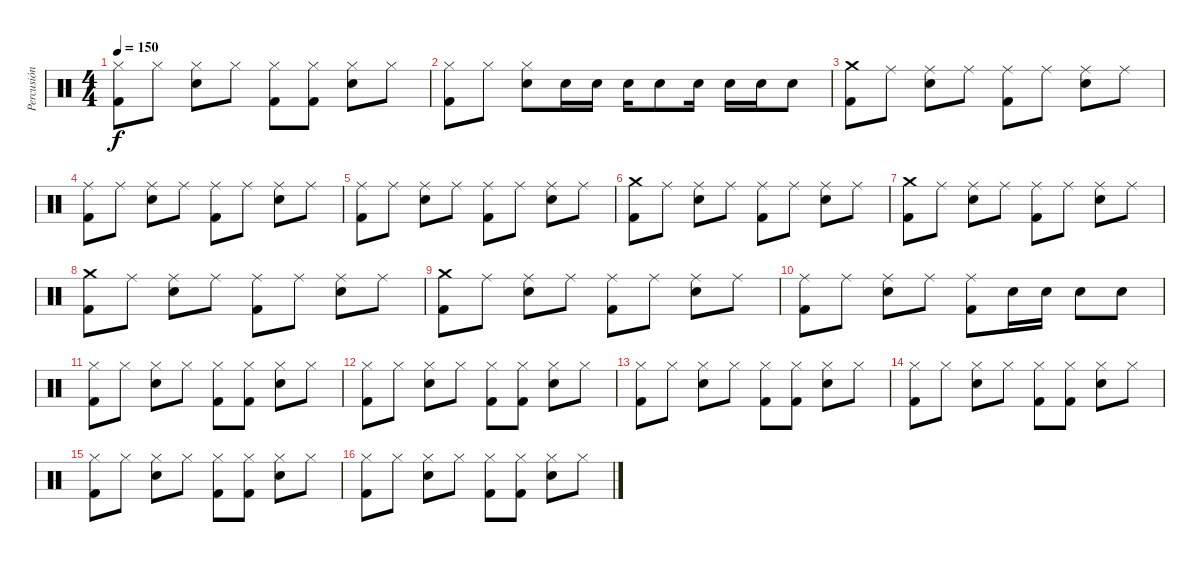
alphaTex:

\track ("Percusión" "Percusión") {instrument percussion}
\staff {score}
\articulation defaults
\ts (4 4)
\tempo 150
\clef neutral
\ks c
("Hi-Hat (closed)" "Kick (hit) 2").8{dy f} "Hi-Hat (closed)".8 ("Hi-Hat (closed)" "Snare (hit) 2").8 "Hi-Hat (closed)".8 ("Hi-Hat (closed)" "Kick (hit) 2").8 ("Hi-Hat (closed)" "Kick (hit) 2").8 ("Hi-Hat (closed)" "Snare (hit) 2").8 "Hi-Hat (closed)".8 |
("Hi-Hat (closed)" "Kick (hit) 2").8 "Hi-Hat (closed)".8 ("Hi-Hat (closed)" "Snare (hit) 2").8 "Snare (hit) 2".16 "Snare (hit) 2".16 "Snare (hit) 2".16 "Snare (hit) 2".8 "Snare (hit) 2".16 "Snare (hit) 2".16 "Snare (hit) 2".16 "Snare (hit) 2".8 |
("Crash medium (hit)" "Kick (hit) 2").8 "Ride (middle)".8 ("Ride (middle)" "Snare (hit) 2").8 "Ride (middle)".8 ("Ride (middle)" "Kick (hit) 2").8 "Ride (middle)".8 ("Ride (middle)" "Snare (hit) 2").8 "Ride (middle)".8 |
("Ride (middle)" "Kick (hit) 2").8 "Ride (middle)".8 ("Ride (middle)" "Snare (hit) 2").8 "Ride (middle)".8 ("Ride (middle)" "Kick (hit) 2").8 "Ride (middle)".8 ("Ride (middle)" "Snare (hit) 2").8 "Ride (middle)".8 |
("Ride (middle)" "Kick (hit) 2").8 "Ride (middle)".8 ("Ride (middle)" "Snare (hit) 2").8 "Ride (middle)".8 ("Ride (middle)" "Kick (hit) 2").8 "Ride (middle)".8 ("Ride (middle)" "Snare (hit) 2").8 "Ride (middle)".8 |
("Crash medium (hit)" "Kick (hit) 2").8 "Ride (middle)".8 ("Ride (middle)" "Snare (hit) 2").8 "Ride (middle)".8 ("Ride (middle)" "Kick (hit) 2").8 "Ride (middle)".8 ("Ride (middle)" "Snare (hit) 2").8 "Ride (middle)".8 |
("Crash medium (hit)" "Kick (hit) 2").8 "Ride (middle)".8 ("Ride (middle)" "Snare (hit) 2").8 "Ride (middle)".8 ("Ride (middle)" "Kick (hit) 2").8 "Ride (middle)".8 ("Ride (middle)" "Snare (hit) 2").8 "Ride (middle)".8 |
("Crash medium (hit)" "Kick (hit) 2").8 "Ride (middle)".8 ("Ride (middle)" "Snare (hit) 2").8 "Ride (middle)".8 ("Ride (middle)" "Kick (hit) 2").8 "Ride (middle)".8 ("Ride (middle)" "Snare (hit) 2").8 "Ride (middle)".8 |
("Crash medium (hit)" "Kick (hit) 2").8 "Ride (middle)".8 ("Ride (middle)" "Snare (hit) 2").8 "Ride (middle)".8 ("Ride (middle)" "Kick (hit) 2").8 "Ride (middle)".8 ("Ride (middle)" "Snare (hit) 2").8 "Ride (middle)".8 |
("Ride (middle)" "Kick (hit) 2").8 "Ride (middle)".8 ("Ride (middle)" "Snare (hit) 2").8 "Ride (middle)".8 ("Ride (middle)" "Kick (hit) 2").8 "Snare (hit) 2".16 "Snare (hit) 2".16 "Snare (hit) 2".8 "Snare (hit) 2".8 |
("Hi-Hat (closed)" "Kick (hit) 2").8 "Hi-Hat (closed)".8 ("Hi-Hat (closed)" "Snare (hit) 2").8 "Hi-Hat (closed)".8 ("Hi-Hat (closed)" "Kick (hit) 2").8 ("Hi-Hat (closed)" "Kick (hit) 2").8 ("Hi-Hat (closed)" "Snare (hit) 2").8 "Hi-Hat (closed)".8 |
("Hi-Hat (closed)" "Kick (hit) 2").8 "Hi-Hat (closed)".8 ("Hi-Hat (closed)" "Snare (hit) 2").8 "Hi-Hat (closed)".8 ("Hi-Hat (closed)" "Kick (hit) 2").8 ("Hi-Hat (closed)" "Kick (hit) 2").8 ("Hi-Hat (closed)" "Snare (hit) 2").8 "Hi-Hat (closed)".8 |
("Hi-Hat (closed)" "Kick (hit) 2").8 "Hi-Hat (closed)".8 ("Hi-Hat (closed)" "Snare (hit) 2").8 "Hi-Hat (closed)".8 ("Hi-Hat (closed)" "Kick (hit) 2").8 ("Hi-Hat (closed)" "Kick (hit) 2").8 ("Hi-Hat (closed)" "Snare (hit) 2").8 "Hi-Hat (closed)".8 |
("Hi-Hat (closed)" "Kick (hit) 2").8 "Hi-Hat (closed)".8 ("Hi-Hat (closed)" "Snare (hit) 2").8 "Hi-Hat (closed)".8 ("Hi-Hat (closed)" "Kick (hit) 2").8 ("Hi-Hat (closed)" "Kick (hit) 2").8 ("Hi-Hat (closed)" "Snare (hit) 2").8 "Hi-Hat (closed)".8 |
("Hi-Hat (closed)" "Kick (hit) 2").8 "Hi-Hat (closed)".8 ("Hi-Hat (closed)" "Snare (hit) 2").8 "Hi-Hat (closed)".8 ("Hi-Hat (closed)" "Kick (hit) 2").8 ("Hi-Hat (closed)" "Kick (hit) 2").8 ("Hi-Hat (closed)" "Snare (hit) 2").8 "Hi-Hat (closed)".8 |
("Hi-Hat (closed)" "Kick (hit) 2").8 "Hi-Hat (closed)".8 ("Hi-Hat (closed)" "Snare (hit) 2").8 "Hi-Hat (closed)".8 ("Hi-Hat (closed)" "Kick (hit) 2").8 ("Hi-Hat (closed)" "Kick (hit) 2").8 ("Hi-Hat (closed)" "Snare (hit) 2").8 "Hi-Hat (closed)".8
